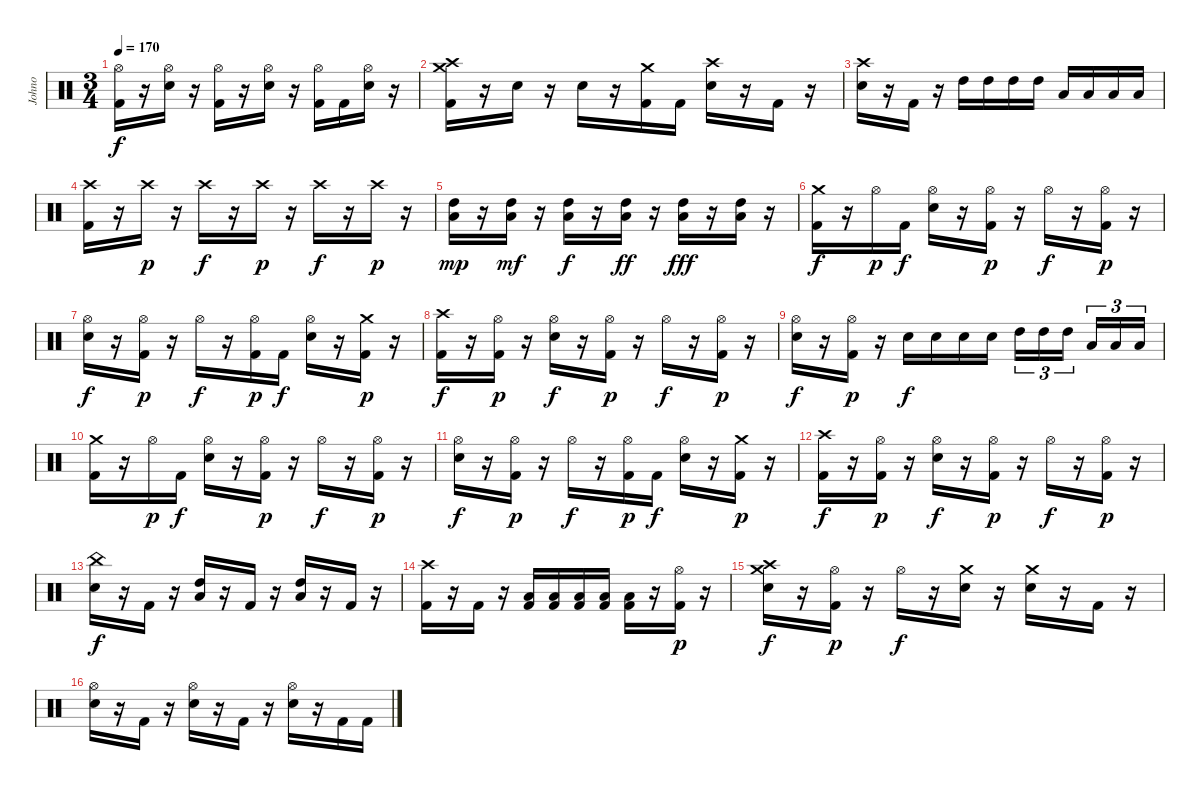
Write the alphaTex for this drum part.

\track ("Johno" "Johno") {instrument percussion}
\staff {score}
\articulation defaults
\ts (3 4)
\tempo 170
\clef neutral
\ks c
("Hi-Hat (open)" "Kick (hit) 2").16{dy f} r.16 ("Hi-Hat (open)" "Electric Snare (hit)").16 r.16 ("Hi-Hat (open)" "Kick (hit) 2").16 r.16 ("Hi-Hat (open)" "Electric Snare (hit)").16 r.16 ("Hi-Hat (open)" "Kick (hit) 2").16 "Kick (hit) 2".16 ("Hi-Hat (open)" "Electric Snare (hit)").16 r.16 |
("Crash medium (hit)" "Crash high (hit)" "Kick (hit) 2").16 r.16 "Electric Snare (hit)".16 r.16 "Electric Snare (hit)".16 r.16 ("Crash medium (hit)" "Kick (hit) 2").16 "Kick (hit) 2".16 ("Crash high (hit)" "Electric Snare (hit)").16 r.16 "Kick (hit) 2".16 r.16 |
("Crash high (hit)" "Electric Snare (hit)").16 r.16 "Kick (hit) 2".16 r.16 "High Tom (hit)".16 "High Tom (hit)".16 "High Tom (hit)".16 "High Tom (hit)".16 "Low Floor Tom (hit)".16 "Low Floor Tom (hit)".16 "Low Floor Tom (hit)".16 "Low Floor Tom (hit)".16 |
("Crash high (hit)" "Kick (hit) 2").16 r.16 "Crash high (hit)".16{dy p} r.16 "Crash high (hit)".16{dy f} r.16 "Crash high (hit)".16{dy p} r.16 "Crash high (hit)".16{dy f} r.16 "Crash high (hit)".16{dy p} r.16 |
("High Tom (hit)" "Low Floor Tom (hit)").16{dy mp} r.16 ("High Tom (hit)" "Low Floor Tom (hit)").16{dy mf} r.16 ("High Tom (hit)" "Low Floor Tom (hit)").16{dy f} r.16 ("High Tom (hit)" "Low Floor Tom (hit)").16{dy ff} r.16 ("High Tom (hit)" "Low Floor Tom (hit)").16{dy fff} r.16 ("High Tom (hit)" "Low Floor Tom (hit)").16 r.16 |
("Crash medium (hit)" "Kick (hit) 2").16{dy f} r.16 "Hi-Hat (open)".16{dy p} "Kick (hit) 2".16{dy f} ("Hi-Hat (open)" "Electric Snare (hit)").16 r.16 ("Hi-Hat (open)" "Kick (hit) 2").16{dy p} r.16 "Hi-Hat (open)".16{dy f} r.16 ("Hi-Hat (open)" "Kick (hit) 2").16{dy p} r.16 |
("Hi-Hat (open)" "Electric Snare (hit)").16{dy f} r.16 ("Hi-Hat (open)" "Kick (hit) 2").16{dy p} r.16 "Hi-Hat (open)".16{dy f} r.16 ("Hi-Hat (open)" "Kick (hit) 2").16{dy p} "Kick (hit) 2".16{dy f} ("Hi-Hat (open)" "Electric Snare (hit)").16 r.16 ("Crash medium (hit)" "Kick (hit) 2").16{dy p} r.16 |
("Crash high (hit)" "Kick (hit) 2").16{dy f} r.16 ("Hi-Hat (open)" "Kick (hit) 2").16{dy p} r.16 ("Hi-Hat (open)" "Electric Snare (hit)").16{dy f} r.16 ("Hi-Hat (open)" "Kick (hit) 2").16{dy p} r.16 "Hi-Hat (open)".16{dy f} r.16 ("Hi-Hat (open)" "Kick (hit) 2").16{dy p} r.16 |
("Hi-Hat (open)" "Electric Snare (hit)").16{dy f} r.16 ("Hi-Hat (open)" "Kick (hit) 2").16{dy p} r.16 "Electric Snare (hit)".16{dy f} "Electric Snare (hit)".16 "Electric Snare (hit)".16 "Electric Snare (hit)".16 "High Tom (hit)".16{tu (3 2)} "High Tom (hit)".16{tu (3 2)} "High Tom (hit)".16{tu (3 2) beam splitsecondary} "Low Floor Tom (hit)".16{tu (3 2)} "Low Floor Tom (hit)".16{tu (3 2)} "Low Floor Tom (hit)".16{tu (3 2)} |
("Crash medium (hit)" "Kick (hit) 2").16 r.16 "Hi-Hat (open)".16{dy p} "Kick (hit) 2".16{dy f} ("Hi-Hat (open)" "Electric Snare (hit)").16 r.16 ("Hi-Hat (open)" "Kick (hit) 2").16{dy p} r.16 "Hi-Hat (open)".16{dy f} r.16 ("Hi-Hat (open)" "Kick (hit) 2").16{dy p} r.16 |
("Hi-Hat (open)" "Electric Snare (hit)").16{dy f} r.16 ("Hi-Hat (open)" "Kick (hit) 2").16{dy p} r.16 "Hi-Hat (open)".16{dy f} r.16 ("Hi-Hat (open)" "Kick (hit) 2").16{dy p} "Kick (hit) 2".16{dy f} ("Hi-Hat (open)" "Electric Snare (hit)").16 r.16 ("Crash medium (hit)" "Kick (hit) 2").16{dy p} r.16 |
("Crash high (hit)" "Kick (hit) 2").16{dy f} r.16 ("Hi-Hat (open)" "Kick (hit) 2").16{dy p} r.16 ("Hi-Hat (open)" "Electric Snare (hit)").16{dy f} r.16 ("Hi-Hat (open)" "Kick (hit) 2").16{dy p} r.16 "Hi-Hat (open)".16{dy f} r.16 ("Hi-Hat (open)" "Kick (hit) 2").16{dy p} r.16 |
("China (hit)" "Electric Snare (hit)").16{dy f} r.16 "Kick (hit) 2".16 r.16 ("Low Floor Tom (hit)" "High Tom (hit)").16 r.16 "Kick (hit) 2".16 r.16 ("High Tom (hit)" "Low Floor Tom (hit)").16 r.16 "Kick (hit) 2".16 r.16 |
("Crash high (hit)" "Kick (hit) 2").16 r.16 "Kick (hit) 2".16 r.16 ("Low Floor Tom (hit)" "Kick (hit) 2").16 ("Low Floor Tom (hit)" "Kick (hit) 2").16 ("Low Floor Tom (hit)" "Kick (hit) 2").16 ("Low Floor Tom (hit)" "Kick (hit) 2").16 ("Low Floor Tom (hit)" "Kick (hit) 2").16 r.16 ("Hi-Hat (open)" "Kick (hit) 2").16{dy p} r.16 |
("Crash medium (hit)" "Crash high (hit)" "Electric Snare (hit)").16{dy f} r.16 ("Hi-Hat (open)" "Kick (hit) 2").16{dy p} r.16 "Hi-Hat (open)".16{dy f} r.16 ("Crash medium (hit)" "Electric Snare (hit)").16 r.16 ("Crash medium (hit)" "Electric Snare (hit)").16 r.16 "Kick (hit) 2".16 r.16 |
("Hi-Hat (open)" "Electric Snare (hit)").16 r.16 "Kick (hit) 2".16 r.16 ("Hi-Hat (open)" "Electric Snare (hit)").16 r.16 "Kick (hit) 2".16 r.16 ("Hi-Hat (open)" "Electric Snare (hit)").16 r.16 "Kick (hit) 2".16 "Kick (hit) 2".16
